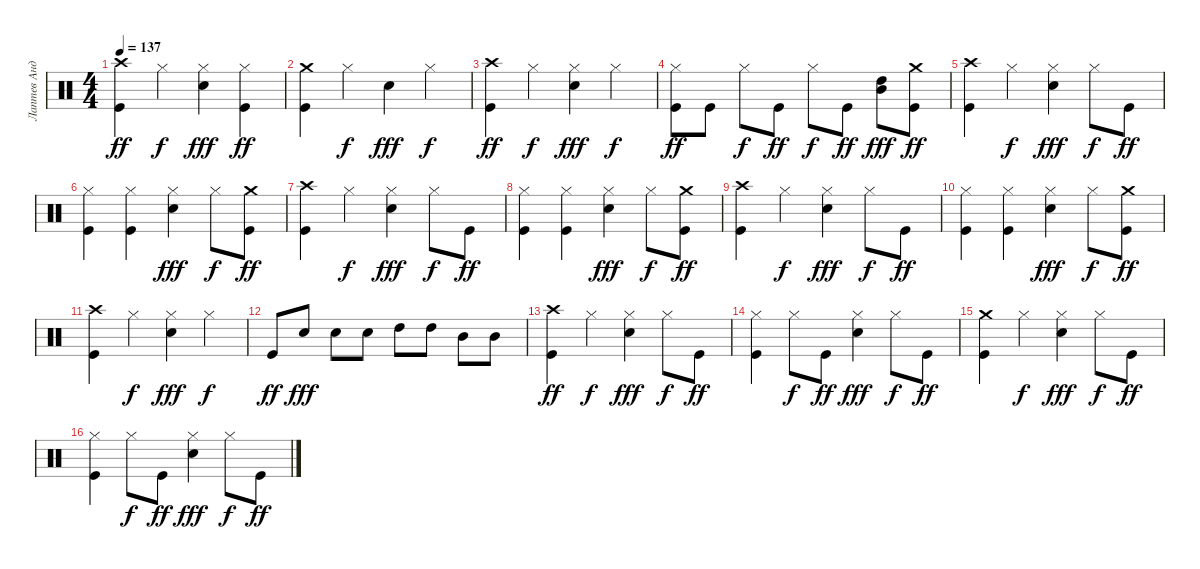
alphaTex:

\track ("Лаптев Андрей" "Лаптев Анд") {instrument percussion}
\staff {score}
\articulation defaults
\ts (4 4)
\tempo 137
\clef neutral
\ks c
("Crash high (hit)" "Kick (hit)").4{dy ff} "Hi-Hat (closed)".4{dy f} ("Snare (hit) 2" "Hi-Hat (closed)").4{dy fff} ("Kick (hit)" "Hi-Hat (closed)").4{dy ff} |
("Kick (hit)" "Crash medium (hit)").4 "Hi-Hat (closed)".4{dy f} "Snare (hit) 2".4{dy fff} "Hi-Hat (closed)".4{dy f} |
("Crash high (hit)" "Kick (hit)").4{dy ff} "Hi-Hat (closed)".4{dy f} ("Snare (hit) 2" "Hi-Hat (closed)").4{dy fff} "Hi-Hat (closed)".4{dy f} |
("Kick (hit)" "Hi-Hat (closed)").8{dy ff} "Kick (hit)".8 "Hi-Hat (closed)".8{dy f} "Kick (hit)".8{dy ff} "Hi-Hat (closed)".8{dy f} "Kick (hit)".8{dy ff} ("High Tom (hit)" "Mid Tom (hit)").8{dy fff} ("Crash medium (hit)" "Kick (hit)").8{dy ff} |
("Kick (hit)" "Crash high (hit)").4 "Hi-Hat (closed)".4{dy f} ("Snare (hit) 2" "Hi-Hat (closed)").4{dy fff} "Hi-Hat (closed)".8{dy f} "Kick (hit)".8{dy ff} |
("Kick (hit)" "Hi-Hat (closed)").4 ("Kick (hit)" "Hi-Hat (closed)").4 ("Snare (hit) 2" "Hi-Hat (closed)").4{dy fff} "Hi-Hat (closed)".8{dy f} ("Crash medium (hit)" "Kick (hit)").8{dy ff} |
("Crash high (hit)" "Kick (hit)").4 "Hi-Hat (closed)".4{dy f} ("Snare (hit) 2" "Hi-Hat (closed)").4{dy fff} "Hi-Hat (closed)".8{dy f} "Kick (hit)".8{dy ff} |
("Kick (hit)" "Hi-Hat (closed)").4 ("Kick (hit)" "Hi-Hat (closed)").4 ("Snare (hit) 2" "Hi-Hat (closed)").4{dy fff} "Hi-Hat (closed)".8{dy f} ("Kick (hit)" "Crash medium (hit)").8{dy ff} |
("Kick (hit)" "Crash high (hit)").4 "Hi-Hat (closed)".4{dy f} ("Snare (hit) 2" "Hi-Hat (closed)").4{dy fff} "Hi-Hat (closed)".8{dy f} "Kick (hit)".8{dy ff} |
("Kick (hit)" "Hi-Hat (closed)").4 ("Kick (hit)" "Hi-Hat (closed)").4 ("Snare (hit) 2" "Hi-Hat (closed)").4{dy fff} "Hi-Hat (closed)".8{dy f} ("Crash medium (hit)" "Kick (hit)").8{dy ff} |
("Crash high (hit)" "Kick (hit)").4 "Hi-Hat (closed)".4{dy f} ("Snare (hit) 2" "Hi-Hat (closed)").4{dy fff} "Hi-Hat (closed)".4{dy f} |
"Kick (hit)".8{dy ff} "Snare (hit) 2".8{dy fff} "Snare (hit) 2".8 "Snare (hit) 2".8 "High Tom (hit)".8 "High Tom (hit)".8 "Mid Tom (hit)".8 "Mid Tom (hit)".8 |
("Crash high (hit)" "Kick (hit)").4{dy ff} "Hi-Hat (closed)".4{dy f} ("Snare (hit) 2" "Hi-Hat (closed)").4{dy fff} "Hi-Hat (closed)".8{dy f} "Kick (hit)".8{dy ff} |
("Kick (hit)" "Hi-Hat (closed)").4 "Hi-Hat (closed)".8{dy f} "Kick (hit)".8{dy ff} ("Snare (hit) 2" "Hi-Hat (closed)").4{dy fff} "Hi-Hat (closed)".8{dy f} "Kick (hit)".8{dy ff} |
("Crash medium (hit)" "Kick (hit)").4 "Hi-Hat (closed)".4{dy f} ("Snare (hit) 2" "Hi-Hat (closed)").4{dy fff} "Hi-Hat (closed)".8{dy f} "Kick (hit)".8{dy ff} |
("Kick (hit)" "Hi-Hat (closed)").4 "Hi-Hat (closed)".8{dy f} "Kick (hit)".8{dy ff} ("Snare (hit) 2" "Hi-Hat (closed)").4{dy fff} "Hi-Hat (closed)".8{dy f} "Kick (hit)".8{dy ff}
